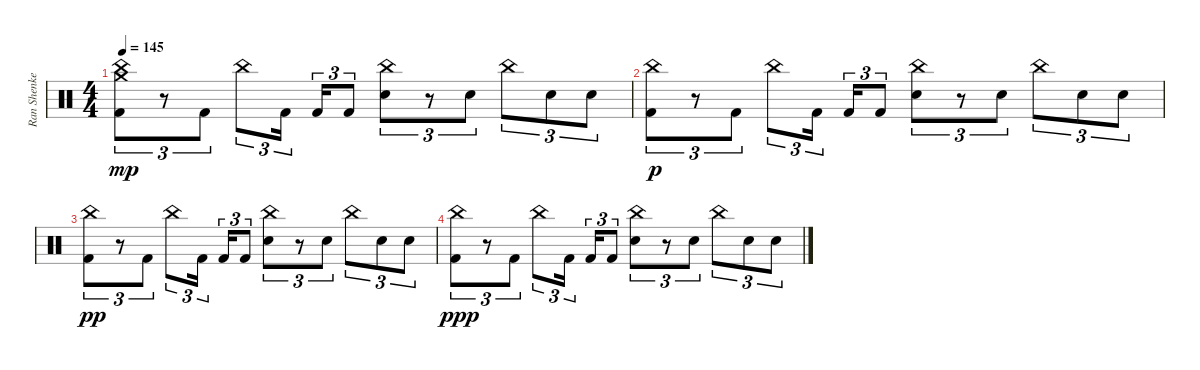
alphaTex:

\track ("Ran Shenkerman" "Ran Shenke") {instrument percussion}
\staff {score}
\articulation defaults
\ts (4 4)
\tempo 145
\clef neutral
\ks c
("China (hit)" "Crash medium (hit)" "Kick (hit) 2").8{tu (3 2) dy mp} r.8{tu (3 2)} "Kick (hit) 2".8{tu (3 2)} "China (hit)".8{tu (3 2)} "Kick (hit) 2".16{tu (3 2) beam splitsecondary} "Kick (hit) 2".16{tu (3 2)} "Kick (hit) 2".8{tu (3 2)} ("China (hit)" "Snare (hit) 2").8{tu (3 2)} r.8{tu (3 2)} "Snare (hit) 2".8{tu (3 2)} "China (hit)".8{tu (3 2)} "Snare (hit) 2".8{tu (3 2)} "Snare (hit) 2".8{tu (3 2)} |
("China (hit)" "Kick (hit) 2").8{tu (3 2) dy p} r.8{tu (3 2)} "Kick (hit) 2".8{tu (3 2)} "China (hit)".8{tu (3 2)} "Kick (hit) 2".16{tu (3 2) beam splitsecondary} "Kick (hit) 2".16{tu (3 2)} "Kick (hit) 2".8{tu (3 2)} ("China (hit)" "Snare (hit) 2").8{tu (3 2)} r.8{tu (3 2)} "Snare (hit) 2".8{tu (3 2)} "China (hit)".8{tu (3 2)} "Snare (hit) 2".8{tu (3 2)} "Snare (hit) 2".8{tu (3 2)} |
("China (hit)" "Kick (hit) 2").8{tu (3 2) dy pp} r.8{tu (3 2)} "Kick (hit) 2".8{tu (3 2)} "China (hit)".8{tu (3 2)} "Kick (hit) 2".16{tu (3 2) beam splitsecondary} "Kick (hit) 2".16{tu (3 2)} "Kick (hit) 2".8{tu (3 2)} ("China (hit)" "Snare (hit) 2").8{tu (3 2)} r.8{tu (3 2)} "Snare (hit) 2".8{tu (3 2)} "China (hit)".8{tu (3 2)} "Snare (hit) 2".8{tu (3 2)} "Snare (hit) 2".8{tu (3 2)} |
("China (hit)" "Kick (hit) 2").8{tu (3 2) dy ppp} r.8{tu (3 2)} "Kick (hit) 2".8{tu (3 2)} "China (hit)".8{tu (3 2)} "Kick (hit) 2".16{tu (3 2) beam splitsecondary} "Kick (hit) 2".16{tu (3 2)} "Kick (hit) 2".8{tu (3 2)} ("China (hit)" "Snare (hit) 2").8{tu (3 2)} r.8{tu (3 2)} "Snare (hit) 2".8{tu (3 2)} "China (hit)".8{tu (3 2)} "Snare (hit) 2".8{tu (3 2)} "Snare (hit) 2".8{tu (3 2)}
